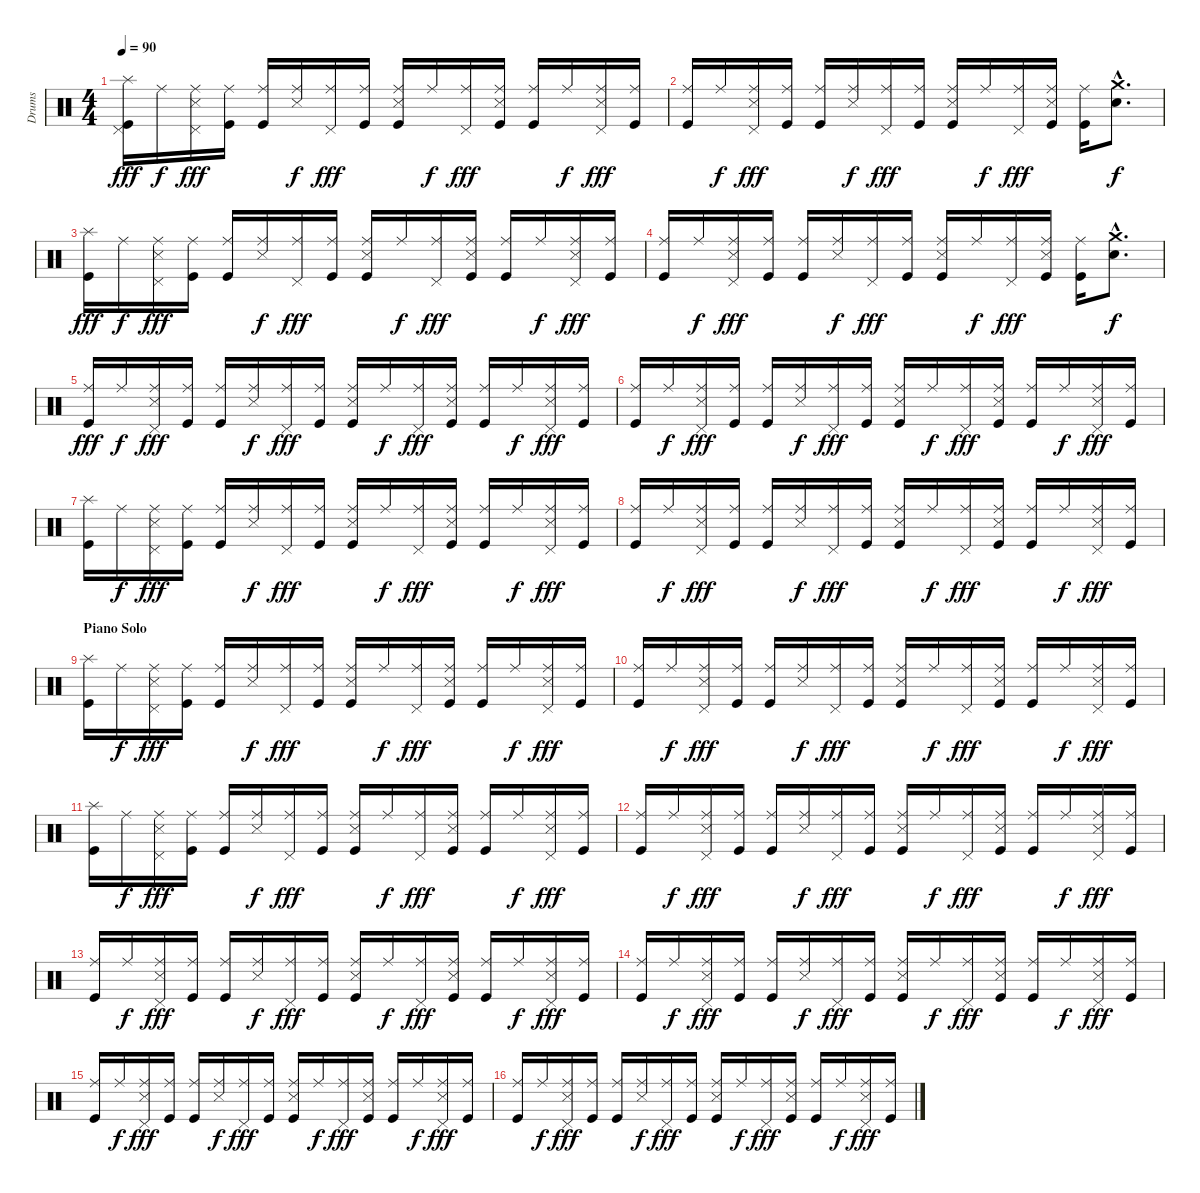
\track ("Drums" "Drums") {instrument percussion}
\staff {score}
\articulation defaults
\ts (4 4)
\tempo 90
\clef neutral
\ks c
("Splash (hit)" "Pedal Hi-Hat (hit)" "Kick (hit)").16{dy fff} "Ride (middle)".16{dy f} ("Ride (middle)" "Snare (side stick) 3" "Pedal Hi-Hat (hit)").16{dy fff} ("Ride (middle)" "Kick (hit)").16 ("Ride (middle)" "Kick (hit)").16 ("Ride (middle)" "Snare (side stick) 3").16{dy f} ("Ride (middle)" "Pedal Hi-Hat (hit)").16{dy fff} ("Ride (middle)" "Kick (hit)").16 ("Ride (middle)" "Snare (side stick) 3" "Kick (hit)").16 "Ride (middle)".16{dy f} ("Ride (middle)" "Pedal Hi-Hat (hit)").16{dy fff} ("Ride (middle)" "Snare (side stick) 3" "Kick (hit)").16 ("Ride (middle)" "Kick (hit)").16 "Ride (middle)".16{dy f} ("Ride (middle)" "Snare (side stick) 3" "Pedal Hi-Hat (hit)").16{dy fff} ("Ride (middle)" "Kick (hit)").16 |
("Ride (middle)" "Kick (hit)").16 "Ride (middle)".16{dy f} ("Ride (middle)" "Snare (side stick) 3" "Pedal Hi-Hat (hit)").16{dy fff} ("Ride (middle)" "Kick (hit)").16 ("Ride (middle)" "Kick (hit)").16 ("Ride (middle)" "Snare (side stick) 3").16{dy f} ("Ride (middle)" "Pedal Hi-Hat (hit)").16{dy fff} ("Ride (middle)" "Kick (hit)").16 ("Ride (middle)" "Snare (side stick) 3" "Kick (hit)").16 "Ride (middle)".16{dy f} ("Ride (middle)" "Pedal Hi-Hat (hit)").16{dy fff} ("Ride (middle)" "Snare (side stick) 3" "Kick (hit)").16 ("Ride (middle)" "Kick (hit)").16 ("Crash medium (hit)"{hac} "Electric Snare (hit)"{hac}).8{d dy f} |
("Splash (hit)" "Kick (hit)").16{dy fff} "Ride (middle)".16{dy f} ("Ride (middle)" "Snare (side stick) 3" "Pedal Hi-Hat (hit)").16{dy fff} ("Ride (middle)" "Kick (hit)").16 ("Ride (middle)" "Kick (hit)").16 ("Ride (middle)" "Snare (side stick) 3").16{dy f} ("Ride (middle)" "Pedal Hi-Hat (hit)").16{dy fff} ("Ride (middle)" "Kick (hit)").16 ("Ride (middle)" "Snare (side stick) 3" "Kick (hit)").16 "Ride (middle)".16{dy f} ("Ride (middle)" "Pedal Hi-Hat (hit)").16{dy fff} ("Ride (middle)" "Snare (side stick) 3" "Kick (hit)").16 ("Ride (middle)" "Kick (hit)").16 "Ride (middle)".16{dy f} ("Ride (middle)" "Snare (side stick) 3" "Pedal Hi-Hat (hit)").16{dy fff} ("Ride (middle)" "Kick (hit)").16 |
("Ride (middle)" "Kick (hit)").16 "Ride (middle)".16{dy f} ("Ride (middle)" "Snare (side stick) 3" "Pedal Hi-Hat (hit)").16{dy fff} ("Ride (middle)" "Kick (hit)").16 ("Ride (middle)" "Kick (hit)").16 ("Ride (middle)" "Snare (side stick) 3").16{dy f} ("Ride (middle)" "Pedal Hi-Hat (hit)").16{dy fff} ("Ride (middle)" "Kick (hit)").16 ("Ride (middle)" "Snare (side stick) 3" "Kick (hit)").16 "Ride (middle)".16{dy f} ("Ride (middle)" "Pedal Hi-Hat (hit)").16{dy fff} ("Ride (middle)" "Snare (side stick) 3" "Kick (hit)").16 ("Ride (middle)" "Kick (hit)").16 ("Crash medium (hit)"{hac} "Electric Snare (hit)"{hac}).8{d dy f} |
("Ride (middle)" "Kick (hit)").16{dy fff} "Ride (middle)".16{dy f} ("Ride (middle)" "Snare (side stick) 3" "Pedal Hi-Hat (hit)").16{dy fff} ("Ride (middle)" "Kick (hit)").16 ("Ride (middle)" "Kick (hit)").16 ("Ride (middle)" "Snare (side stick) 3").16{dy f} ("Ride (middle)" "Pedal Hi-Hat (hit)").16{dy fff} ("Ride (middle)" "Kick (hit)").16 ("Ride (middle)" "Snare (side stick) 3" "Kick (hit)").16 "Ride (middle)".16{dy f} ("Ride (middle)" "Pedal Hi-Hat (hit)").16{dy fff} ("Ride (middle)" "Snare (side stick) 3" "Kick (hit)").16 ("Ride (middle)" "Kick (hit)").16 "Ride (middle)".16{dy f} ("Ride (middle)" "Snare (side stick) 3" "Pedal Hi-Hat (hit)").16{dy fff} ("Ride (middle)" "Kick (hit)").16 |
("Ride (middle)" "Kick (hit)").16 "Ride (middle)".16{dy f} ("Ride (middle)" "Snare (side stick) 3" "Pedal Hi-Hat (hit)").16{dy fff} ("Ride (middle)" "Kick (hit)").16 ("Ride (middle)" "Kick (hit)").16 ("Ride (middle)" "Snare (side stick) 3").16{dy f} ("Ride (middle)" "Pedal Hi-Hat (hit)").16{dy fff} ("Ride (middle)" "Kick (hit)").16 ("Ride (middle)" "Snare (side stick) 3" "Kick (hit)").16 "Ride (middle)".16{dy f} ("Ride (middle)" "Pedal Hi-Hat (hit)").16{dy fff} ("Ride (middle)" "Snare (side stick) 3" "Kick (hit)").16 ("Ride (middle)" "Kick (hit)").16 "Ride (middle)".16{dy f} ("Ride (middle)" "Snare (side stick) 3" "Pedal Hi-Hat (hit)").16{dy fff} ("Ride (middle)" "Kick (hit)").16 |
("Splash (hit)" "Kick (hit)").16 "Ride (middle)".16{dy f} ("Ride (middle)" "Snare (side stick) 3" "Pedal Hi-Hat (hit)").16{dy fff} ("Ride (middle)" "Kick (hit)").16 ("Ride (middle)" "Kick (hit)").16 ("Ride (middle)" "Snare (side stick) 3").16{dy f} ("Ride (middle)" "Pedal Hi-Hat (hit)").16{dy fff} ("Ride (middle)" "Kick (hit)").16 ("Ride (middle)" "Snare (side stick) 3" "Kick (hit)").16 "Ride (middle)".16{dy f} ("Ride (middle)" "Pedal Hi-Hat (hit)").16{dy fff} ("Ride (middle)" "Snare (side stick) 3" "Kick (hit)").16 ("Ride (middle)" "Kick (hit)").16 "Ride (middle)".16{dy f} ("Ride (middle)" "Snare (side stick) 3" "Pedal Hi-Hat (hit)").16{dy fff} ("Ride (middle)" "Kick (hit)").16 |
("Ride (middle)" "Kick (hit)").16 "Ride (middle)".16{dy f} ("Ride (middle)" "Snare (side stick) 3" "Pedal Hi-Hat (hit)").16{dy fff} ("Ride (middle)" "Kick (hit)").16 ("Ride (middle)" "Kick (hit)").16 ("Ride (middle)" "Snare (side stick) 3").16{dy f} ("Ride (middle)" "Pedal Hi-Hat (hit)").16{dy fff} ("Ride (middle)" "Kick (hit)").16 ("Ride (middle)" "Snare (side stick) 3" "Kick (hit)").16 "Ride (middle)".16{dy f} ("Ride (middle)" "Pedal Hi-Hat (hit)").16{dy fff} ("Ride (middle)" "Snare (side stick) 3" "Kick (hit)").16 ("Ride (middle)" "Kick (hit)").16 "Ride (middle)".16{dy f} ("Ride (middle)" "Snare (side stick) 3" "Pedal Hi-Hat (hit)").16{dy fff} ("Ride (middle)" "Kick (hit)").16 |
\section ("" "Piano Solo")
("Splash (hit)" "Kick (hit)").16 "Ride (middle)".16{dy f} ("Ride (middle)" "Snare (side stick) 3" "Pedal Hi-Hat (hit)").16{dy fff} ("Ride (middle)" "Kick (hit)").16 ("Ride (middle)" "Kick (hit)").16 ("Ride (middle)" "Snare (side stick) 3").16{dy f} ("Ride (middle)" "Pedal Hi-Hat (hit)").16{dy fff} ("Ride (middle)" "Kick (hit)").16 ("Ride (middle)" "Snare (side stick) 3" "Kick (hit)").16 "Ride (middle)".16{dy f} ("Ride (middle)" "Pedal Hi-Hat (hit)").16{dy fff} ("Ride (middle)" "Snare (side stick) 3" "Kick (hit)").16 ("Ride (middle)" "Kick (hit)").16 "Ride (middle)".16{dy f} ("Ride (middle)" "Snare (side stick) 3" "Pedal Hi-Hat (hit)").16{dy fff} ("Ride (middle)" "Kick (hit)").16 |
("Ride (middle)" "Kick (hit)").16 "Ride (middle)".16{dy f} ("Ride (middle)" "Snare (side stick) 3" "Pedal Hi-Hat (hit)").16{dy fff} ("Ride (middle)" "Kick (hit)").16 ("Ride (middle)" "Kick (hit)").16 ("Ride (middle)" "Snare (side stick) 3").16{dy f} ("Ride (middle)" "Pedal Hi-Hat (hit)").16{dy fff} ("Ride (middle)" "Kick (hit)").16 ("Ride (middle)" "Snare (side stick) 3" "Kick (hit)").16 "Ride (middle)".16{dy f} ("Ride (middle)" "Pedal Hi-Hat (hit)").16{dy fff} ("Ride (middle)" "Snare (side stick) 3" "Kick (hit)").16 ("Ride (middle)" "Kick (hit)").16 "Ride (middle)".16{dy f} ("Ride (middle)" "Snare (side stick) 3" "Pedal Hi-Hat (hit)").16{dy fff} ("Ride (middle)" "Kick (hit)").16 |
("Splash (hit)" "Kick (hit)").16 "Ride (middle)".16{dy f} ("Ride (middle)" "Snare (side stick) 3" "Pedal Hi-Hat (hit)").16{dy fff} ("Ride (middle)" "Kick (hit)").16 ("Ride (middle)" "Kick (hit)").16 ("Ride (middle)" "Snare (side stick) 3").16{dy f} ("Ride (middle)" "Pedal Hi-Hat (hit)").16{dy fff} ("Ride (middle)" "Kick (hit)").16 ("Ride (middle)" "Snare (side stick) 3" "Kick (hit)").16 "Ride (middle)".16{dy f} ("Ride (middle)" "Pedal Hi-Hat (hit)").16{dy fff} ("Ride (middle)" "Snare (side stick) 3" "Kick (hit)").16 ("Ride (middle)" "Kick (hit)").16 "Ride (middle)".16{dy f} ("Ride (middle)" "Snare (side stick) 3" "Pedal Hi-Hat (hit)").16{dy fff} ("Ride (middle)" "Kick (hit)").16 |
("Ride (middle)" "Kick (hit)").16 "Ride (middle)".16{dy f} ("Ride (middle)" "Snare (side stick) 3" "Pedal Hi-Hat (hit)").16{dy fff} ("Ride (middle)" "Kick (hit)").16 ("Ride (middle)" "Kick (hit)").16 ("Ride (middle)" "Snare (side stick) 3").16{dy f} ("Ride (middle)" "Pedal Hi-Hat (hit)").16{dy fff} ("Ride (middle)" "Kick (hit)").16 ("Ride (middle)" "Snare (side stick) 3" "Kick (hit)").16 "Ride (middle)".16{dy f} ("Ride (middle)" "Pedal Hi-Hat (hit)").16{dy fff} ("Ride (middle)" "Snare (side stick) 3" "Kick (hit)").16 ("Ride (middle)" "Kick (hit)").16 "Ride (middle)".16{dy f} ("Ride (middle)" "Snare (side stick) 3" "Pedal Hi-Hat (hit)").16{dy fff} ("Ride (middle)" "Kick (hit)").16 |
("Ride (middle)" "Kick (hit)").16 "Ride (middle)".16{dy f} ("Ride (middle)" "Snare (side stick) 3" "Pedal Hi-Hat (hit)").16{dy fff} ("Ride (middle)" "Kick (hit)").16 ("Ride (middle)" "Kick (hit)").16 ("Ride (middle)" "Snare (side stick) 3").16{dy f} ("Ride (middle)" "Pedal Hi-Hat (hit)").16{dy fff} ("Ride (middle)" "Kick (hit)").16 ("Ride (middle)" "Snare (side stick) 3" "Kick (hit)").16 "Ride (middle)".16{dy f} ("Ride (middle)" "Pedal Hi-Hat (hit)").16{dy fff} ("Ride (middle)" "Snare (side stick) 3" "Kick (hit)").16 ("Ride (middle)" "Kick (hit)").16 "Ride (middle)".16{dy f} ("Ride (middle)" "Snare (side stick) 3" "Pedal Hi-Hat (hit)").16{dy fff} ("Ride (middle)" "Kick (hit)").16 |
("Ride (middle)" "Kick (hit)").16 "Ride (middle)".16{dy f} ("Ride (middle)" "Snare (side stick) 3" "Pedal Hi-Hat (hit)").16{dy fff} ("Ride (middle)" "Kick (hit)").16 ("Ride (middle)" "Kick (hit)").16 ("Ride (middle)" "Snare (side stick) 3").16{dy f} ("Ride (middle)" "Pedal Hi-Hat (hit)").16{dy fff} ("Ride (middle)" "Kick (hit)").16 ("Ride (middle)" "Snare (side stick) 3" "Kick (hit)").16 "Ride (middle)".16{dy f} ("Ride (middle)" "Pedal Hi-Hat (hit)").16{dy fff} ("Ride (middle)" "Snare (side stick) 3" "Kick (hit)").16 ("Ride (middle)" "Kick (hit)").16 "Ride (middle)".16{dy f} ("Ride (middle)" "Snare (side stick) 3" "Pedal Hi-Hat (hit)").16{dy fff} ("Ride (middle)" "Kick (hit)").16 |
("Ride (middle)" "Kick (hit)").16 "Ride (middle)".16{dy f} ("Ride (middle)" "Snare (side stick) 3" "Pedal Hi-Hat (hit)").16{dy fff} ("Ride (middle)" "Kick (hit)").16 ("Ride (middle)" "Kick (hit)").16 ("Ride (middle)" "Snare (side stick) 3").16{dy f} ("Ride (middle)" "Pedal Hi-Hat (hit)").16{dy fff} ("Ride (middle)" "Kick (hit)").16 ("Ride (middle)" "Snare (side stick) 3" "Kick (hit)").16 "Ride (middle)".16{dy f} ("Ride (middle)" "Pedal Hi-Hat (hit)").16{dy fff} ("Ride (middle)" "Snare (side stick) 3" "Kick (hit)").16 ("Ride (middle)" "Kick (hit)").16 "Ride (middle)".16{dy f} ("Ride (middle)" "Snare (side stick) 3" "Pedal Hi-Hat (hit)").16{dy fff} ("Ride (middle)" "Kick (hit)").16 |
("Ride (middle)" "Kick (hit)").16 "Ride (middle)".16{dy f} ("Ride (middle)" "Snare (side stick) 3" "Pedal Hi-Hat (hit)").16{dy fff} ("Ride (middle)" "Kick (hit)").16 ("Ride (middle)" "Kick (hit)").16 ("Ride (middle)" "Snare (side stick) 3").16{dy f} ("Ride (middle)" "Pedal Hi-Hat (hit)").16{dy fff} ("Ride (middle)" "Kick (hit)").16 ("Ride (middle)" "Snare (side stick) 3" "Kick (hit)").16 "Ride (middle)".16{dy f} ("Ride (middle)" "Pedal Hi-Hat (hit)").16{dy fff} ("Ride (middle)" "Snare (side stick) 3" "Kick (hit)").16 ("Ride (middle)" "Kick (hit)").16 "Ride (middle)".16{dy f} ("Ride (middle)" "Snare (side stick) 3" "Pedal Hi-Hat (hit)").16{dy fff} ("Ride (middle)" "Kick (hit)").16
